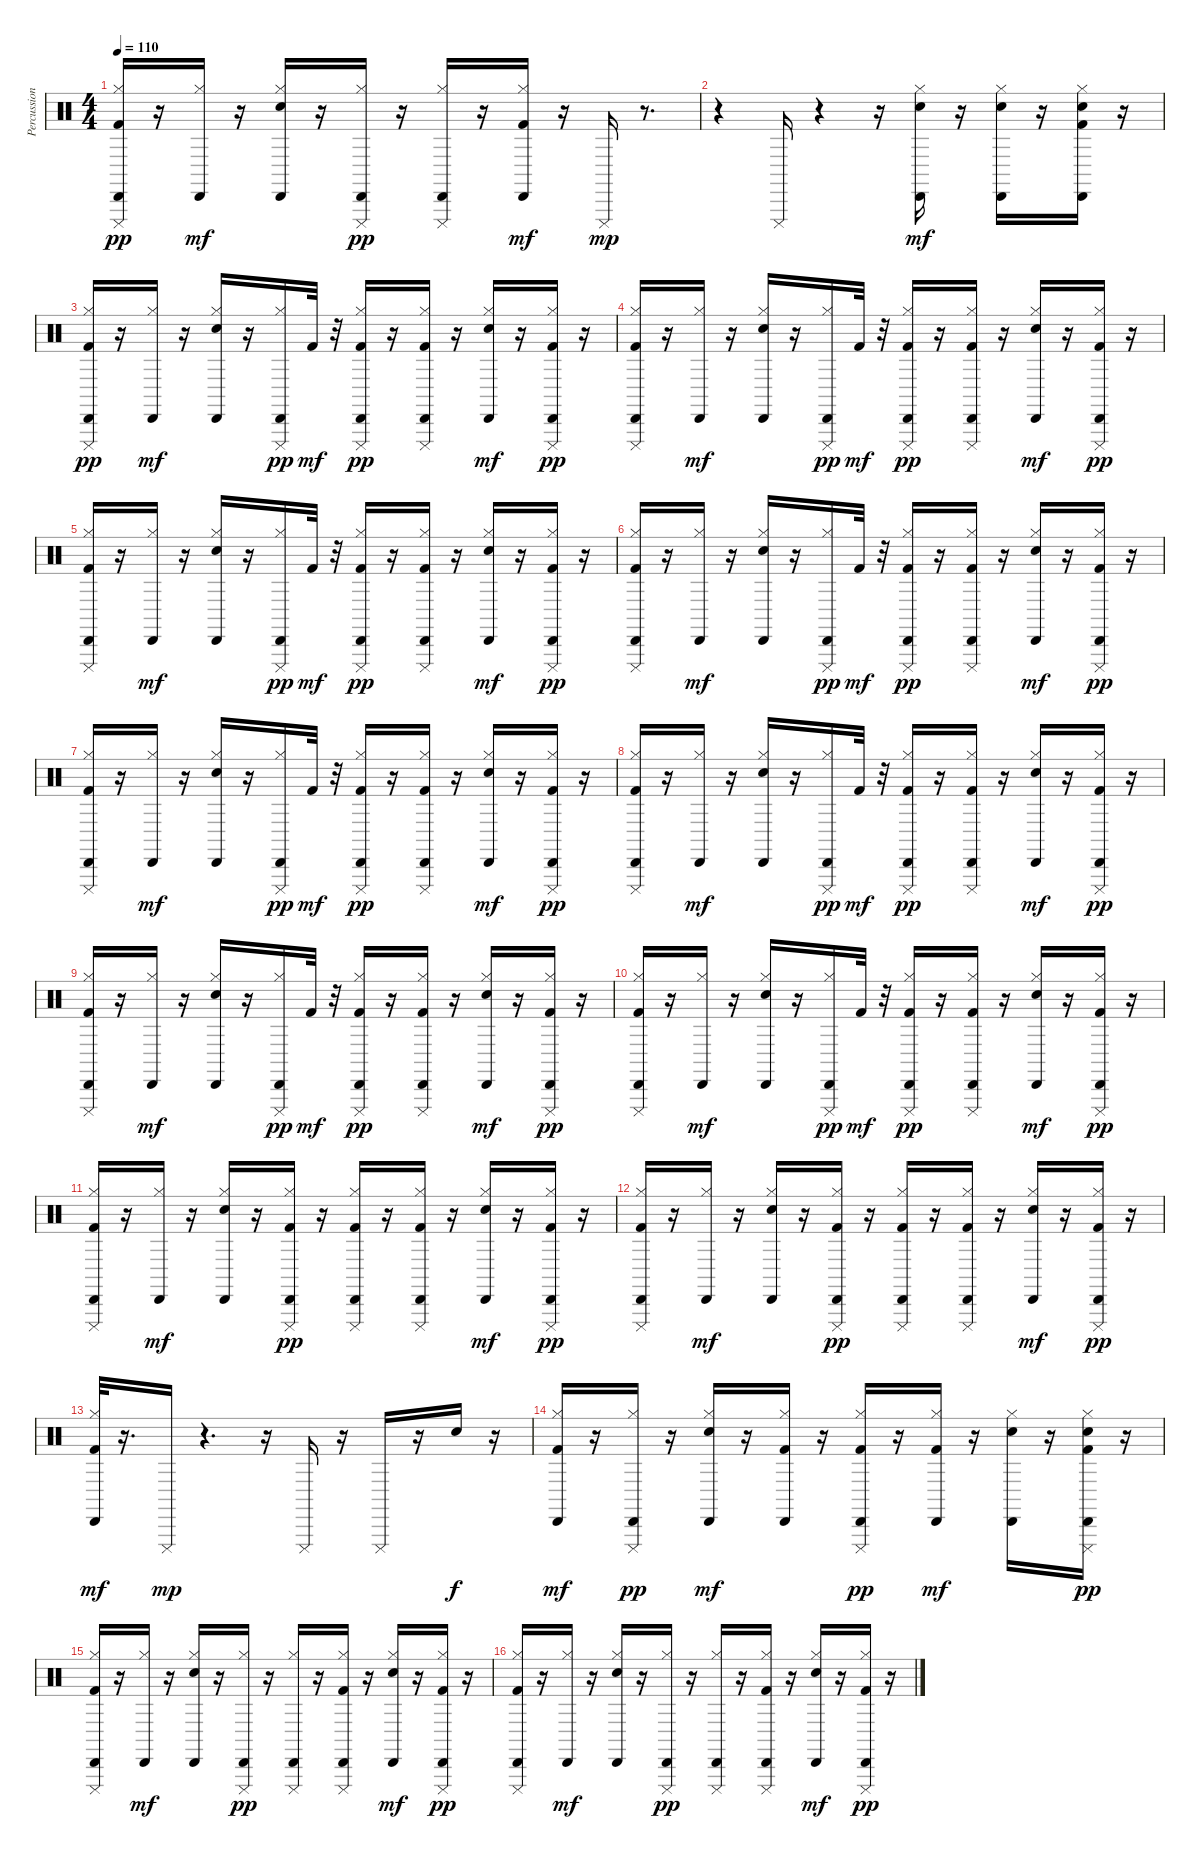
\track ("Percussion" "Percussion") {instrument percussion}
\staff {score}
\articulation defaults
\ts (4 4)
\tempo 110
\clef neutral
\ks c
("Kick (hit) 2" "Hi-Hat (closed)" "Cabasa (hit)" "Cuica (mute)").16{dy pp} r.16 ("Hi-Hat (closed)" "Cabasa (hit)").16{dy mf} r.16 ("Electric Snare (hit)" "Hi-Hat (closed)" "Cabasa (hit)").16 r.16 ("Hi-Hat (closed)" "Cabasa (hit)" "Cuica (mute)").16{dy pp} r.16 ("Hi-Hat (closed)" "Cabasa (hit)" "Cuica (mute)").16 r.16 ("Kick (hit) 2" "Hi-Hat (closed)" "Cabasa (hit)").16{dy mf} r.16 "Cuica (mute)".16{dy mp} r.8{d} |
r.4 "Cuica (mute)".16 r.4 r.16 ("Electric Snare (hit)" "Hi-Hat (closed)" "Cabasa (hit)").16{dy mf} r.16 ("Electric Snare (hit)" "Hi-Hat (closed)" "Cabasa (hit)").16 r.16 ("Kick (hit) 2" "Electric Snare (hit)" "Hi-Hat (closed)" "Cabasa (hit)").16 r.16 |
("Kick (hit) 2" "Hi-Hat (closed)" "Cabasa (hit)" "Cuica (mute)").16{dy pp} r.16 ("Hi-Hat (closed)" "Cabasa (hit)").16{dy mf} r.16 ("Electric Snare (hit)" "Hi-Hat (closed)" "Cabasa (hit)").16 r.16 ("Hi-Hat (closed)" "Cabasa (hit)" "Cuica (mute)").16{dy pp} "Kick (hit) 2".32{dy mf} r.32 ("Kick (hit) 2" "Hi-Hat (closed)" "Cabasa (hit)" "Cuica (mute)").16{dy pp} r.16 ("Kick (hit) 2" "Hi-Hat (closed)" "Cabasa (hit)" "Cuica (mute)").16 r.16 ("Electric Snare (hit)" "Hi-Hat (closed)" "Cabasa (hit)").16{dy mf} r.16 ("Kick (hit) 2" "Hi-Hat (closed)" "Cabasa (hit)" "Cuica (mute)").16{dy pp} r.16 |
("Kick (hit) 2" "Hi-Hat (closed)" "Cabasa (hit)" "Cuica (mute)").16 r.16 ("Hi-Hat (closed)" "Cabasa (hit)").16{dy mf} r.16 ("Electric Snare (hit)" "Hi-Hat (closed)" "Cabasa (hit)").16 r.16 ("Hi-Hat (closed)" "Cabasa (hit)" "Cuica (mute)").16{dy pp} "Kick (hit) 2".32{dy mf} r.32 ("Kick (hit) 2" "Hi-Hat (closed)" "Cabasa (hit)" "Cuica (mute)").16{dy pp} r.16 ("Kick (hit) 2" "Hi-Hat (closed)" "Cabasa (hit)" "Cuica (mute)").16 r.16 ("Electric Snare (hit)" "Hi-Hat (closed)" "Cabasa (hit)").16{dy mf} r.16 ("Kick (hit) 2" "Hi-Hat (closed)" "Cabasa (hit)" "Cuica (mute)").16{dy pp} r.16 |
("Kick (hit) 2" "Hi-Hat (closed)" "Cabasa (hit)" "Cuica (mute)").16 r.16 ("Hi-Hat (closed)" "Cabasa (hit)").16{dy mf} r.16 ("Electric Snare (hit)" "Hi-Hat (closed)" "Cabasa (hit)").16 r.16 ("Hi-Hat (closed)" "Cabasa (hit)" "Cuica (mute)").16{dy pp} "Kick (hit) 2".32{dy mf} r.32 ("Kick (hit) 2" "Hi-Hat (closed)" "Cabasa (hit)" "Cuica (mute)").16{dy pp} r.16 ("Kick (hit) 2" "Hi-Hat (closed)" "Cabasa (hit)" "Cuica (mute)").16 r.16 ("Electric Snare (hit)" "Hi-Hat (closed)" "Cabasa (hit)").16{dy mf} r.16 ("Kick (hit) 2" "Hi-Hat (closed)" "Cabasa (hit)" "Cuica (mute)").16{dy pp} r.16 |
("Kick (hit) 2" "Hi-Hat (closed)" "Cabasa (hit)" "Cuica (mute)").16 r.16 ("Hi-Hat (closed)" "Cabasa (hit)").16{dy mf} r.16 ("Electric Snare (hit)" "Hi-Hat (closed)" "Cabasa (hit)").16 r.16 ("Hi-Hat (closed)" "Cabasa (hit)" "Cuica (mute)").16{dy pp} "Kick (hit) 2".32{dy mf} r.32 ("Kick (hit) 2" "Hi-Hat (closed)" "Cabasa (hit)" "Cuica (mute)").16{dy pp} r.16 ("Kick (hit) 2" "Hi-Hat (closed)" "Cabasa (hit)" "Cuica (mute)").16 r.16 ("Electric Snare (hit)" "Hi-Hat (closed)" "Cabasa (hit)").16{dy mf} r.16 ("Kick (hit) 2" "Hi-Hat (closed)" "Cabasa (hit)" "Cuica (mute)").16{dy pp} r.16 |
("Kick (hit) 2" "Hi-Hat (closed)" "Cabasa (hit)" "Cuica (mute)").16 r.16 ("Hi-Hat (closed)" "Cabasa (hit)").16{dy mf} r.16 ("Electric Snare (hit)" "Hi-Hat (closed)" "Cabasa (hit)").16 r.16 ("Hi-Hat (closed)" "Cabasa (hit)" "Cuica (mute)").16{dy pp} "Kick (hit) 2".32{dy mf} r.32 ("Kick (hit) 2" "Hi-Hat (closed)" "Cabasa (hit)" "Cuica (mute)").16{dy pp} r.16 ("Kick (hit) 2" "Hi-Hat (closed)" "Cabasa (hit)" "Cuica (mute)").16 r.16 ("Electric Snare (hit)" "Hi-Hat (closed)" "Cabasa (hit)").16{dy mf} r.16 ("Kick (hit) 2" "Hi-Hat (closed)" "Cabasa (hit)" "Cuica (mute)").16{dy pp} r.16 |
("Kick (hit) 2" "Hi-Hat (closed)" "Cabasa (hit)" "Cuica (mute)").16 r.16 ("Hi-Hat (closed)" "Cabasa (hit)").16{dy mf} r.16 ("Electric Snare (hit)" "Hi-Hat (closed)" "Cabasa (hit)").16 r.16 ("Hi-Hat (closed)" "Cabasa (hit)" "Cuica (mute)").16{dy pp} "Kick (hit) 2".32{dy mf} r.32 ("Kick (hit) 2" "Hi-Hat (closed)" "Cabasa (hit)" "Cuica (mute)").16{dy pp} r.16 ("Kick (hit) 2" "Hi-Hat (closed)" "Cabasa (hit)" "Cuica (mute)").16 r.16 ("Electric Snare (hit)" "Hi-Hat (closed)" "Cabasa (hit)").16{dy mf} r.16 ("Kick (hit) 2" "Hi-Hat (closed)" "Cabasa (hit)" "Cuica (mute)").16{dy pp} r.16 |
("Kick (hit) 2" "Hi-Hat (closed)" "Cabasa (hit)" "Cuica (mute)").16 r.16 ("Hi-Hat (closed)" "Cabasa (hit)").16{dy mf} r.16 ("Electric Snare (hit)" "Hi-Hat (closed)" "Cabasa (hit)").16 r.16 ("Hi-Hat (closed)" "Cabasa (hit)" "Cuica (mute)").16{dy pp} "Kick (hit) 2".32{dy mf} r.32 ("Kick (hit) 2" "Hi-Hat (closed)" "Cabasa (hit)" "Cuica (mute)").16{dy pp} r.16 ("Kick (hit) 2" "Hi-Hat (closed)" "Cabasa (hit)" "Cuica (mute)").16 r.16 ("Electric Snare (hit)" "Hi-Hat (closed)" "Cabasa (hit)").16{dy mf} r.16 ("Kick (hit) 2" "Hi-Hat (closed)" "Cabasa (hit)" "Cuica (mute)").16{dy pp} r.16 |
("Kick (hit) 2" "Hi-Hat (closed)" "Cabasa (hit)" "Cuica (mute)").16 r.16 ("Hi-Hat (closed)" "Cabasa (hit)").16{dy mf} r.16 ("Electric Snare (hit)" "Hi-Hat (closed)" "Cabasa (hit)").16 r.16 ("Hi-Hat (closed)" "Cabasa (hit)" "Cuica (mute)").16{dy pp} "Kick (hit) 2".32{dy mf} r.32 ("Kick (hit) 2" "Hi-Hat (closed)" "Cabasa (hit)" "Cuica (mute)").16{dy pp} r.16 ("Kick (hit) 2" "Hi-Hat (closed)" "Cabasa (hit)" "Cuica (mute)").16 r.16 ("Electric Snare (hit)" "Hi-Hat (closed)" "Cabasa (hit)").16{dy mf} r.16 ("Kick (hit) 2" "Hi-Hat (closed)" "Cabasa (hit)" "Cuica (mute)").16{dy pp} r.16 |
("Kick (hit) 2" "Hi-Hat (closed)" "Cabasa (hit)" "Cuica (mute)").16 r.16 ("Hi-Hat (closed)" "Cabasa (hit)").16{dy mf} r.16 ("Electric Snare (hit)" "Hi-Hat (closed)" "Cabasa (hit)").16 r.16 ("Kick (hit) 2" "Hi-Hat (closed)" "Cabasa (hit)" "Cuica (mute)").16{dy pp} r.16 ("Kick (hit) 2" "Hi-Hat (closed)" "Cabasa (hit)" "Cuica (mute)").16 r.16 ("Kick (hit) 2" "Hi-Hat (closed)" "Cabasa (hit)" "Cuica (mute)").16 r.16 ("Electric Snare (hit)" "Hi-Hat (closed)" "Cabasa (hit)").16{dy mf} r.16 ("Kick (hit) 2" "Hi-Hat (closed)" "Cabasa (hit)" "Cuica (mute)").16{dy pp} r.16 |
("Kick (hit) 2" "Hi-Hat (closed)" "Cabasa (hit)" "Cuica (mute)").16 r.16 ("Hi-Hat (closed)" "Cabasa (hit)").16{dy mf} r.16 ("Electric Snare (hit)" "Hi-Hat (closed)" "Cabasa (hit)").16 r.16 ("Kick (hit) 2" "Hi-Hat (closed)" "Cabasa (hit)" "Cuica (mute)").16{dy pp} r.16 ("Kick (hit) 2" "Hi-Hat (closed)" "Cabasa (hit)" "Cuica (mute)").16 r.16 ("Kick (hit) 2" "Hi-Hat (closed)" "Cabasa (hit)" "Cuica (mute)").16 r.16 ("Electric Snare (hit)" "Hi-Hat (closed)" "Cabasa (hit)").16{dy mf} r.16 ("Kick (hit) 2" "Hi-Hat (closed)" "Cabasa (hit)" "Cuica (mute)").16{dy pp} r.16 |
("Kick (hit) 2" "Hi-Hat (closed)" "Cabasa (hit)").32{dy mf} r.16{d} "Cuica (mute)".16{dy mp} r.4{d} r.16 "Cuica (mute)".16 r.16 "Cuica (mute)".16 r.16 "Electric Snare (hit)".16{dy f} r.16 |
("Kick (hit) 2" "Hi-Hat (closed)" "Cabasa (hit)").16{dy mf} r.16 ("Hi-Hat (closed)" "Cabasa (hit)" "Cuica (mute)").16{dy pp} r.16 ("Electric Snare (hit)" "Hi-Hat (closed)" "Cabasa (hit)").16{dy mf} r.16 ("Kick (hit) 2" "Hi-Hat (closed)" "Cabasa (hit)").16 r.16 ("Kick (hit) 2" "Hi-Hat (closed)" "Cabasa (hit)" "Cuica (mute)").16{dy pp} r.16 ("Kick (hit) 2" "Hi-Hat (closed)" "Cabasa (hit)").16{dy mf} r.16 ("Electric Snare (hit)" "Hi-Hat (closed)" "Cabasa (hit)").16 r.16 ("Kick (hit) 2" "Electric Snare (hit)" "Hi-Hat (closed)" "Cabasa (hit)" "Cuica (mute)").16{dy pp} r.16 |
("Kick (hit) 2" "Hi-Hat (closed)" "Cabasa (hit)" "Cuica (mute)").16 r.16 ("Hi-Hat (closed)" "Cabasa (hit)").16{dy mf} r.16 ("Electric Snare (hit)" "Hi-Hat (closed)" "Cabasa (hit)").16 r.16 ("Hi-Hat (closed)" "Cabasa (hit)" "Cuica (mute)").16{dy pp} r.16 ("Hi-Hat (closed)" "Cabasa (hit)" "Cuica (mute)").16 r.16 ("Kick (hit) 2" "Hi-Hat (closed)" "Cabasa (hit)" "Cuica (mute)").16 r.16 ("Electric Snare (hit)" "Hi-Hat (closed)" "Cabasa (hit)").16{dy mf} r.16 ("Kick (hit) 2" "Hi-Hat (closed)" "Cabasa (hit)" "Cuica (mute)").16{dy pp} r.16 |
("Kick (hit) 2" "Hi-Hat (closed)" "Cabasa (hit)" "Cuica (mute)").16 r.16 ("Hi-Hat (closed)" "Cabasa (hit)").16{dy mf} r.16 ("Electric Snare (hit)" "Hi-Hat (closed)" "Cabasa (hit)").16 r.16 ("Hi-Hat (closed)" "Cabasa (hit)" "Cuica (mute)").16{dy pp} r.16 ("Hi-Hat (closed)" "Cabasa (hit)" "Cuica (mute)").16 r.16 ("Kick (hit) 2" "Hi-Hat (closed)" "Cabasa (hit)" "Cuica (mute)").16 r.16 ("Electric Snare (hit)" "Hi-Hat (closed)" "Cabasa (hit)").16{dy mf} r.16 ("Kick (hit) 2" "Hi-Hat (closed)" "Cabasa (hit)" "Cuica (mute)").16{dy pp} r.16
